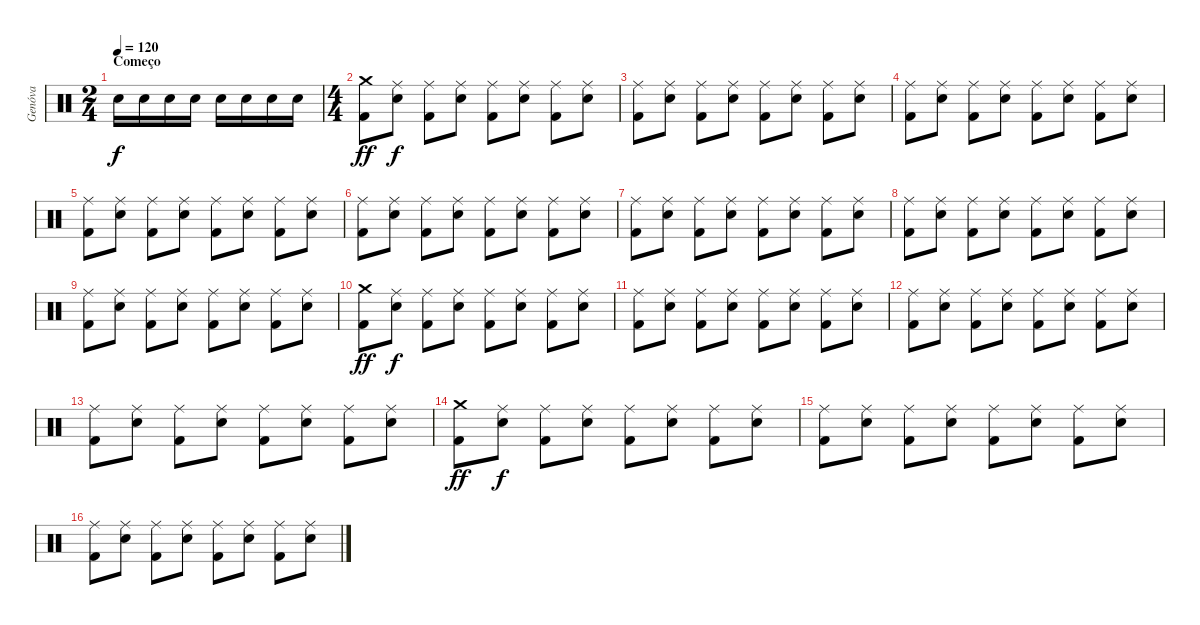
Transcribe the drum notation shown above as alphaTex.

\track ("Genóva" "Genóva") {instrument percussion}
\staff {score}
\articulation defaults
\ts (2 4)
\section ("" "Começo")
\tempo 120
\clef neutral
\ks c "Snare (hit) 2".16{dy f} "Snare (hit) 2".16 "Snare (hit) 2".16 "Snare (hit) 2".16 "Snare (hit) 2".16 "Snare (hit) 2".16 "Snare (hit) 2".16 "Snare (hit) 2".16
|
\ts (4 4)
("Kick (hit) 2" "Crash medium (hit)").8{dy ff} ("Snare (hit) 2" "Ride (middle)").8{dy f} ("Kick (hit) 2" "Ride (middle)").8 ("Snare (hit) 2" "Ride (middle)").8 ("Kick (hit) 2" "Ride (middle)").8 ("Snare (hit) 2" "Ride (middle)").8 ("Kick (hit) 2" "Ride (middle)").8 ("Snare (hit) 2" "Ride (middle)").8 |
("Kick (hit) 2" "Ride (middle)").8 ("Snare (hit) 2" "Ride (middle)").8 ("Kick (hit) 2" "Ride (middle)").8 ("Snare (hit) 2" "Ride (middle)").8 ("Kick (hit) 2" "Ride (middle)").8 ("Snare (hit) 2" "Ride (middle)").8 ("Kick (hit) 2" "Ride (middle)").8 ("Snare (hit) 2" "Ride (middle)").8 |
("Kick (hit) 2" "Ride (middle)").8 ("Snare (hit) 2" "Ride (middle)").8 ("Kick (hit) 2" "Ride (middle)").8 ("Snare (hit) 2" "Ride (middle)").8 ("Kick (hit) 2" "Ride (middle)").8 ("Snare (hit) 2" "Ride (middle)").8 ("Kick (hit) 2" "Ride (middle)").8 ("Snare (hit) 2" "Ride (middle)").8 |
("Kick (hit) 2" "Ride (middle)").8 ("Snare (hit) 2" "Ride (middle)").8 ("Kick (hit) 2" "Ride (middle)").8 ("Snare (hit) 2" "Ride (middle)").8 ("Kick (hit) 2" "Ride (middle)").8 ("Snare (hit) 2" "Ride (middle)").8 ("Kick (hit) 2" "Ride (middle)").8 ("Snare (hit) 2" "Ride (middle)").8 |
("Kick (hit) 2" "Ride (middle)").8 ("Snare (hit) 2" "Ride (middle)").8 ("Kick (hit) 2" "Ride (middle)").8 ("Snare (hit) 2" "Ride (middle)").8 ("Kick (hit) 2" "Ride (middle)").8 ("Snare (hit) 2" "Ride (middle)").8 ("Kick (hit) 2" "Ride (middle)").8 ("Snare (hit) 2" "Ride (middle)").8 |
("Kick (hit) 2" "Ride (middle)").8 ("Snare (hit) 2" "Ride (middle)").8 ("Kick (hit) 2" "Ride (middle)").8 ("Snare (hit) 2" "Ride (middle)").8 ("Kick (hit) 2" "Ride (middle)").8 ("Snare (hit) 2" "Ride (middle)").8 ("Kick (hit) 2" "Ride (middle)").8 ("Snare (hit) 2" "Ride (middle)").8 |
("Kick (hit) 2" "Ride (middle)").8 ("Snare (hit) 2" "Ride (middle)").8 ("Kick (hit) 2" "Ride (middle)").8 ("Snare (hit) 2" "Ride (middle)").8 ("Kick (hit) 2" "Ride (middle)").8 ("Snare (hit) 2" "Ride (middle)").8 ("Kick (hit) 2" "Ride (middle)").8 ("Snare (hit) 2" "Ride (middle)").8 |
("Kick (hit) 2" "Ride (middle)").8 ("Snare (hit) 2" "Ride (middle)").8 ("Kick (hit) 2" "Ride (middle)").8 ("Snare (hit) 2" "Ride (middle)").8 ("Kick (hit) 2" "Ride (middle)").8 ("Snare (hit) 2" "Ride (middle)").8 ("Kick (hit) 2" "Ride (middle)").8 ("Snare (hit) 2" "Ride (middle)").8 |
("Kick (hit) 2" "Crash medium (hit)").8{dy ff} ("Snare (hit) 2" "Ride (middle)").8{dy f} ("Kick (hit) 2" "Ride (middle)").8 ("Snare (hit) 2" "Ride (middle)").8 ("Kick (hit) 2" "Ride (middle)").8 ("Snare (hit) 2" "Ride (middle)").8 ("Kick (hit) 2" "Ride (middle)").8 ("Snare (hit) 2" "Ride (middle)").8 |
("Kick (hit) 2" "Ride (middle)").8 ("Snare (hit) 2" "Ride (middle)").8 ("Kick (hit) 2" "Ride (middle)").8 ("Snare (hit) 2" "Ride (middle)").8 ("Kick (hit) 2" "Ride (middle)").8 ("Snare (hit) 2" "Ride (middle)").8 ("Kick (hit) 2" "Ride (middle)").8 ("Snare (hit) 2" "Ride (middle)").8 |
("Kick (hit) 2" "Ride (middle)").8 ("Snare (hit) 2" "Ride (middle)").8 ("Kick (hit) 2" "Ride (middle)").8 ("Snare (hit) 2" "Ride (middle)").8 ("Kick (hit) 2" "Ride (middle)").8 ("Snare (hit) 2" "Ride (middle)").8 ("Kick (hit) 2" "Ride (middle)").8 ("Snare (hit) 2" "Ride (middle)").8 |
("Kick (hit) 2" "Ride (middle)").8 ("Snare (hit) 2" "Ride (middle)").8 ("Kick (hit) 2" "Ride (middle)").8 ("Snare (hit) 2" "Ride (middle)").8 ("Kick (hit) 2" "Ride (middle)").8 ("Snare (hit) 2" "Ride (middle)").8 ("Kick (hit) 2" "Ride (middle)").8 ("Snare (hit) 2" "Ride (middle)").8 |
("Kick (hit) 2" "Crash medium (hit)").8{dy ff} ("Snare (hit) 2" "Ride (middle)").8{dy f} ("Kick (hit) 2" "Ride (middle)").8 ("Snare (hit) 2" "Ride (middle)").8 ("Kick (hit) 2" "Ride (middle)").8 ("Snare (hit) 2" "Ride (middle)").8 ("Kick (hit) 2" "Ride (middle)").8 ("Snare (hit) 2" "Ride (middle)").8 |
("Kick (hit) 2" "Ride (middle)").8 ("Snare (hit) 2" "Ride (middle)").8 ("Kick (hit) 2" "Ride (middle)").8 ("Snare (hit) 2" "Ride (middle)").8 ("Kick (hit) 2" "Ride (middle)").8 ("Snare (hit) 2" "Ride (middle)").8 ("Kick (hit) 2" "Ride (middle)").8 ("Snare (hit) 2" "Ride (middle)").8 |
("Kick (hit) 2" "Ride (middle)").8 ("Snare (hit) 2" "Ride (middle)").8 ("Kick (hit) 2" "Ride (middle)").8 ("Snare (hit) 2" "Ride (middle)").8 ("Kick (hit) 2" "Ride (middle)").8 ("Snare (hit) 2" "Ride (middle)").8 ("Kick (hit) 2" "Ride (middle)").8 ("Snare (hit) 2" "Ride (middle)").8
